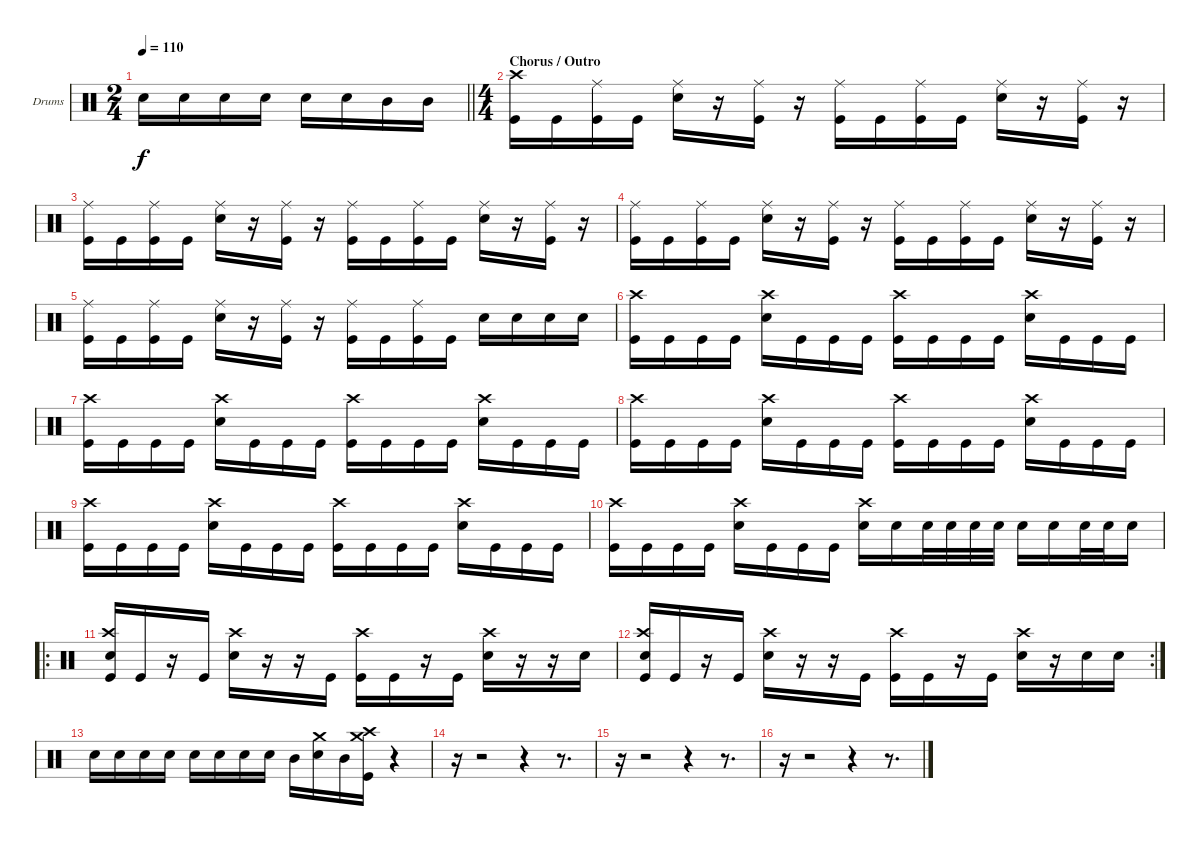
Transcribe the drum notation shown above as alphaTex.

\bracketExtendMode groupsimilarinstruments
\firstSystemTrackNameOrientation horizontal
\otherSystemsTrackNameOrientation horizontal
\track ("Drumkit" "Drums") {instrument percussion}
\staff {score}
\articulation defaults
\ts (2 4)
\beaming (8 2 2)
\tempo 110
\clef neutral
\barLineRight lightlight
\ks c "Snare (hit) 2".16{dy f} "Snare (hit) 2".16 "Snare (hit) 2".16 "Snare (hit) 2".16 "Snare (hit) 2".16 "Snare (hit) 2".16 "Mid Tom (hit)".16 "Mid Tom (hit)".16
|
\ts (4 4)
\beaming (8 2 2 2 2)
\section ("" "Chorus / Outro")
("Crash high (hit)" "Kick (hit)").16 "Kick (hit)".16 ("Ride (middle)" "Kick (hit)").16 "Kick (hit)".16 ("Ride (middle)" "Snare (hit) 2").16 r.16 ("Ride (middle)" "Kick (hit)").16 r.16 ("Ride (middle)" "Kick (hit)").16 "Kick (hit)".16 ("Ride (middle)" "Kick (hit)").16 "Kick (hit)".16 ("Ride (middle)" "Snare (hit) 2").16 r.16 ("Ride (middle)" "Kick (hit)").16 r.16 |
("Ride (middle)" "Kick (hit)").16 "Kick (hit)".16 ("Ride (middle)" "Kick (hit)").16 "Kick (hit)".16 ("Ride (middle)" "Snare (hit) 2").16 r.16 ("Ride (middle)" "Kick (hit)").16 r.16 ("Ride (middle)" "Kick (hit)").16 "Kick (hit)".16 ("Ride (middle)" "Kick (hit)").16 "Kick (hit)".16 ("Ride (middle)" "Snare (hit) 2").16 r.16 ("Ride (middle)" "Kick (hit)").16 r.16 |
("Ride (middle)" "Kick (hit)").16 "Kick (hit)".16 ("Ride (middle)" "Kick (hit)").16 "Kick (hit)".16 ("Ride (middle)" "Snare (hit) 2").16 r.16 ("Ride (middle)" "Kick (hit)").16 r.16 ("Ride (middle)" "Kick (hit)").16 "Kick (hit)".16 ("Ride (middle)" "Kick (hit)").16 "Kick (hit)".16 ("Ride (middle)" "Snare (hit) 2").16 r.16 ("Ride (middle)" "Kick (hit)").16 r.16 |
("Ride (middle)" "Kick (hit)").16 "Kick (hit)".16 ("Ride (middle)" "Kick (hit)").16 "Kick (hit)".16 ("Ride (middle)" "Snare (hit) 2").16 r.16 ("Ride (middle)" "Kick (hit)").16 r.16 ("Ride (middle)" "Kick (hit)").16 "Kick (hit)".16 ("Ride (middle)" "Kick (hit)").16 "Kick (hit)".16 "Snare (hit) 2".16 "Snare (hit) 2".16 "Snare (hit) 2".16 "Snare (hit) 2".16 |
("Crash high (hit)" "Kick (hit)").16 "Kick (hit)".16 "Kick (hit)".16 "Kick (hit)".16 ("Crash high (hit)" "Snare (hit) 2").16 "Kick (hit)".16 "Kick (hit)".16 "Kick (hit)".16 ("Crash high (hit)" "Kick (hit)").16 "Kick (hit)".16 "Kick (hit)".16 "Kick (hit)".16 ("Crash high (hit)" "Snare (hit) 2").16 "Kick (hit)".16 "Kick (hit)".16 "Kick (hit)".16 |
("Crash high (hit)" "Kick (hit)").16 "Kick (hit)".16 "Kick (hit)".16 "Kick (hit)".16 ("Crash high (hit)" "Snare (hit) 2").16 "Kick (hit)".16 "Kick (hit)".16 "Kick (hit)".16 ("Crash high (hit)" "Kick (hit)").16 "Kick (hit)".16 "Kick (hit)".16 "Kick (hit)".16 ("Crash high (hit)" "Snare (hit) 2").16 "Kick (hit)".16 "Kick (hit)".16 "Kick (hit)".16 |
("Crash high (hit)" "Kick (hit)").16 "Kick (hit)".16 "Kick (hit)".16 "Kick (hit)".16 ("Crash high (hit)" "Snare (hit) 2").16 "Kick (hit)".16 "Kick (hit)".16 "Kick (hit)".16 ("Crash high (hit)" "Kick (hit)").16 "Kick (hit)".16 "Kick (hit)".16 "Kick (hit)".16 ("Crash high (hit)" "Snare (hit) 2").16 "Kick (hit)".16 "Kick (hit)".16 "Kick (hit)".16 |
("Crash high (hit)" "Kick (hit)").16 "Kick (hit)".16 "Kick (hit)".16 "Kick (hit)".16 ("Crash high (hit)" "Snare (hit) 2").16 "Kick (hit)".16 "Kick (hit)".16 "Kick (hit)".16 ("Crash high (hit)" "Kick (hit)").16 "Kick (hit)".16 "Kick (hit)".16 "Kick (hit)".16 ("Crash high (hit)" "Snare (hit) 2").16 "Kick (hit)".16 "Kick (hit)".16 "Kick (hit)".16 |
("Crash high (hit)" "Kick (hit)").16 "Kick (hit)".16 "Kick (hit)".16 "Kick (hit)".16 ("Crash high (hit)" "Snare (hit) 2").16 "Kick (hit)".16 "Kick (hit)".16 "Kick (hit)".16 ("Crash high (hit)" "Snare (hit) 2").16 "Snare (hit) 2".16 "Snare (hit) 2".32 "Snare (hit) 2".32 "Snare (hit) 2".32 "Snare (hit) 2".32 "Snare (hit) 2".16 "Snare (hit) 2".16 "Snare (hit) 2".32 "Snare (hit) 2".32 "Snare (hit) 2".16 |
\ro
("Crash high (hit)" "Snare (hit) 2" "Kick (hit)").16 "Kick (hit)".16 r.16 "Kick (hit)".16 ("Crash high (hit)" "Snare (hit) 2").16 r.16 r.16 "Kick (hit)".16 ("Crash high (hit)" "Kick (hit)").16 "Kick (hit)".16 r.16 "Kick (hit)".16 ("Crash high (hit)" "Snare (hit) 2").16 r.16 r.16 "Snare (hit) 2".16 |
\rc 2
("Crash high (hit)" "Snare (hit) 2" "Kick (hit)").16 "Kick (hit)".16 r.16 "Kick (hit)".16 ("Crash high (hit)" "Snare (hit) 2").16 r.16 r.16 "Kick (hit)".16 ("Crash high (hit)" "Kick (hit)").16 "Kick (hit)".16 r.16 "Kick (hit)".16 ("Crash high (hit)" "Snare (hit) 2").16 r.16 "Snare (hit) 2".16 "Snare (hit) 2".16 |
"Snare (hit) 2".16 "Snare (hit) 2".16 "Snare (hit) 2".16 "Snare (hit) 2".16 "Snare (hit) 2".16 "Snare (hit) 2".16 "Snare (hit) 2".16 "Snare (hit) 2".16 "Mid Tom (hit)".16 ("Crash medium (hit)" "Snare (hit) 2").16 "Mid Tom (hit)".16 ("Crash high (hit)" "Crash medium (hit)" "Kick (hit)").16 r.4 |
r.16 r.2 r.4 r.8{d} |
r.16 r.2 r.4 r.8{d} |
r.16 r.2 r.4 r.8{d}
